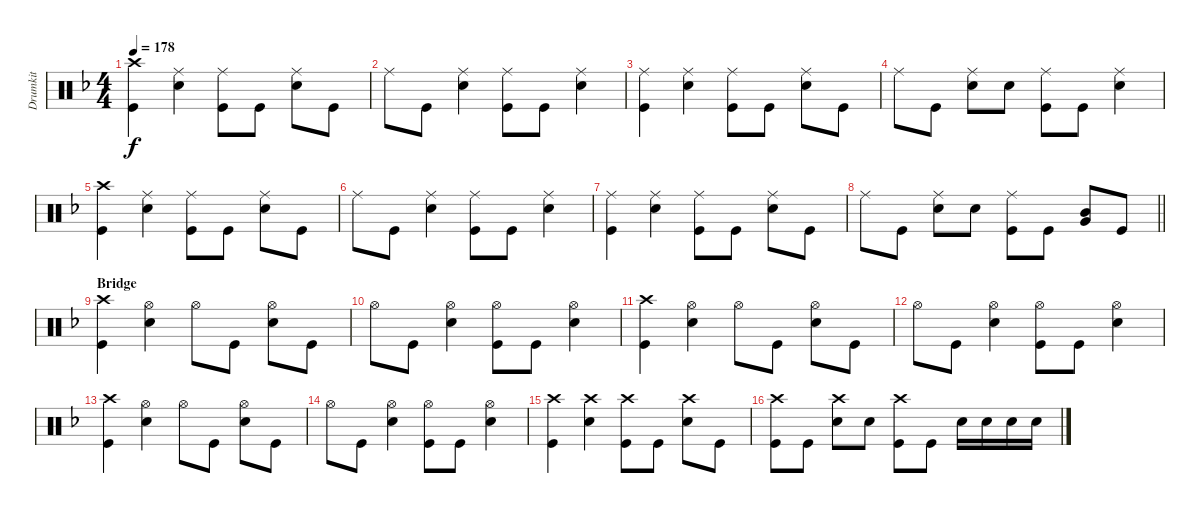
\track ("Drumkit" "Drumkit") {instrument percussion}
\staff {score}
\articulation defaults
\ts (4 4)
\tempo 178
\clef neutral
\ks f
("Crash high (hit)" "Kick (hit)").4{dy f} ("Ride (middle)" "Snare (hit) 2").4 ("Ride (middle)" "Kick (hit)").8 "Kick (hit)".8 ("Ride (middle)" "Snare (hit) 2").8 "Kick (hit)".8 |
"Ride (middle)".8 "Kick (hit)".8 ("Ride (middle)" "Snare (hit) 2").4 ("Ride (middle)" "Kick (hit)").8 "Kick (hit)".8 ("Ride (middle)" "Snare (hit) 2").4 |
("Ride (middle)" "Kick (hit)").4 ("Ride (middle)" "Snare (hit) 2").4 ("Ride (middle)" "Kick (hit)").8 "Kick (hit)".8 ("Ride (middle)" "Snare (hit) 2").8 "Kick (hit)".8 |
"Ride (middle)".8 "Kick (hit)".8 ("Ride (middle)" "Snare (hit) 2").8 "Snare (hit) 2".8 ("Ride (middle)" "Kick (hit)").8 "Kick (hit)".8 ("Ride (middle)" "Snare (hit) 2").4 |
("Crash high (hit)" "Kick (hit)").4 ("Ride (middle)" "Snare (hit) 2").4 ("Ride (middle)" "Kick (hit)").8 "Kick (hit)".8 ("Ride (middle)" "Snare (hit) 2").8 "Kick (hit)".8 |
"Ride (middle)".8 "Kick (hit)".8 ("Ride (middle)" "Snare (hit) 2").4 ("Ride (middle)" "Kick (hit)").8 "Kick (hit)".8 ("Ride (middle)" "Snare (hit) 2").4 |
("Ride (middle)" "Kick (hit)").4 ("Ride (middle)" "Snare (hit) 2").4 ("Ride (middle)" "Kick (hit)").8 "Kick (hit)".8 ("Ride (middle)" "Snare (hit) 2").8 "Kick (hit)".8 |
\barLineRight lightlight "Ride (middle)".8 "Kick (hit)".8
("Ride (middle)" "Snare (hit) 2").8 "Snare (hit) 2".8 ("Ride (middle)" "Kick (hit)").8 "Kick (hit)".8 ("Mid Tom (hit)" "Very Low Tom (hit)").8 "Kick (hit)".8 |
\section ("" "Bridge")
("Crash high (hit)" "Kick (hit)").4 ("Hi-Hat (open)" "Snare (hit) 2").4 "Hi-Hat (open)".8 "Kick (hit)".8 ("Hi-Hat (open)" "Snare (hit) 2").8 "Kick (hit)".8 |
"Hi-Hat (open)".8 "Kick (hit)".8 ("Hi-Hat (open)" "Snare (hit) 2").4 ("Hi-Hat (open)" "Kick (hit)").8 "Kick (hit)".8 ("Hi-Hat (open)" "Snare (hit) 2").4 |
("Crash high (hit)" "Kick (hit)").4 ("Hi-Hat (open)" "Snare (hit) 2").4 "Hi-Hat (open)".8 "Kick (hit)".8 ("Hi-Hat (open)" "Snare (hit) 2").8 "Kick (hit)".8 |
"Hi-Hat (open)".8 "Kick (hit)".8 ("Hi-Hat (open)" "Snare (hit) 2").4 ("Hi-Hat (open)" "Kick (hit)").8 "Kick (hit)".8 ("Hi-Hat (open)" "Snare (hit) 2").4 |
("Crash high (hit)" "Kick (hit)").4 ("Hi-Hat (open)" "Snare (hit) 2").4 "Hi-Hat (open)".8 "Kick (hit)".8 ("Hi-Hat (open)" "Snare (hit) 2").8 "Kick (hit)".8 |
"Hi-Hat (open)".8 "Kick (hit)".8 ("Hi-Hat (open)" "Snare (hit) 2").4 ("Hi-Hat (open)" "Kick (hit)").8 "Kick (hit)".8 ("Hi-Hat (open)" "Snare (hit) 2").4 |
("Crash high (hit)" "Kick (hit)").4 ("Crash high (hit)" "Snare (hit) 2").4 ("Crash high (hit)" "Kick (hit)").8 "Kick (hit)".8 ("Crash high (hit)" "Snare (hit) 2").8 "Kick (hit)".8 |
("Crash high (hit)" "Kick (hit)").8 "Kick (hit)".8 ("Crash high (hit)" "Snare (hit) 2").8 "Snare (hit) 2".8 ("Crash high (hit)" "Kick (hit)").8 "Kick (hit)".8 "Snare (hit) 2".16 "Snare (hit) 2".16 "Snare (hit) 2".16 "Snare (hit) 2".16
